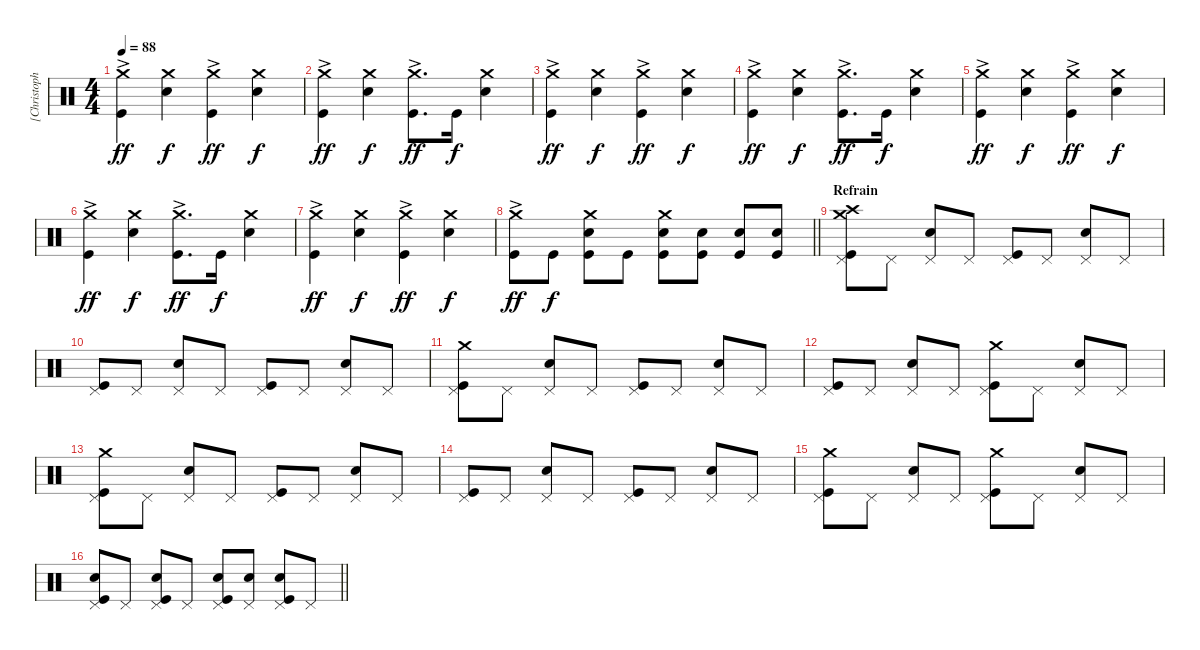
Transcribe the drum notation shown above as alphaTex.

\track ("[Christoph Schneider]  Drums" "[Christoph") {instrument percussion}
\staff {score}
\articulation defaults
\ts (4 4)
\tempo 88
\clef neutral
\ks c
("Crash medium (hit)" "Kick (hit)"{ac}).4{dy ff} ("Electric Snare (hit)" "Crash medium (hit)").4{dy f} ("Crash medium (hit)" "Kick (hit)"{ac}).4{dy ff} ("Electric Snare (hit)" "Crash medium (hit)").4{dy f} |
("Crash medium (hit)" "Kick (hit)"{ac}).4{dy ff} ("Electric Snare (hit)" "Crash medium (hit)").4{dy f} ("Crash medium (hit)" "Kick (hit)"{ac}).8{d dy ff} "Kick (hit)".16{dy f} ("Electric Snare (hit)" "Crash medium (hit)").4 |
("Crash medium (hit)" "Kick (hit)"{ac}).4{dy ff} ("Electric Snare (hit)" "Crash medium (hit)").4{dy f} ("Crash medium (hit)" "Kick (hit)"{ac}).4{dy ff} ("Electric Snare (hit)" "Crash medium (hit)").4{dy f} |
("Crash medium (hit)" "Kick (hit)"{ac}).4{dy ff} ("Electric Snare (hit)" "Crash medium (hit)").4{dy f} ("Crash medium (hit)" "Kick (hit)"{ac}).8{d dy ff} "Kick (hit)".16{dy f} ("Electric Snare (hit)" "Crash medium (hit)").4 |
("Crash medium (hit)" "Kick (hit)"{ac}).4{dy ff} ("Electric Snare (hit)" "Crash medium (hit)").4{dy f} ("Crash medium (hit)" "Kick (hit)"{ac}).4{dy ff} ("Electric Snare (hit)" "Crash medium (hit)").4{dy f} |
("Crash medium (hit)" "Kick (hit)"{ac}).4{dy ff} ("Electric Snare (hit)" "Crash medium (hit)").4{dy f} ("Crash medium (hit)" "Kick (hit)"{ac}).8{d dy ff} "Kick (hit)".16{dy f} ("Electric Snare (hit)" "Crash medium (hit)").4 |
("Crash medium (hit)" "Kick (hit)"{ac}).4{dy ff} ("Electric Snare (hit)" "Crash medium (hit)").4{dy f} ("Crash medium (hit)" "Kick (hit)"{ac}).4{dy ff} ("Electric Snare (hit)" "Crash medium (hit)").4{dy f} |
\barLineRight lightlight
("Crash medium (hit)" "Kick (hit)"{ac}).8{dy ff} "Kick (hit)".8{dy f} ("Kick (hit)" "Electric Snare (hit)" "Crash medium (hit)").8 "Kick (hit)".8 ("Electric Snare (hit)" "Crash medium (hit)" "Kick (hit)").8 ("Kick (hit)" "Electric Snare (hit)").8 ("Electric Snare (hit)" "Kick (hit)").8 ("Kick (hit)" "Electric Snare (hit)").8 |
\section ("" "Refrain")
("Crash medium (hit)" "Pedal Hi-Hat (hit)" "Crash high (hit)" "Kick (hit)").8 "Pedal Hi-Hat (hit)".8 ("Pedal Hi-Hat (hit)" "Electric Snare (hit)").8 "Pedal Hi-Hat (hit)".8 ("Pedal Hi-Hat (hit)" "Kick (hit)").8 "Pedal Hi-Hat (hit)".8 ("Pedal Hi-Hat (hit)" "Electric Snare (hit)").8 "Pedal Hi-Hat (hit)".8 |
("Pedal Hi-Hat (hit)" "Kick (hit)").8 "Pedal Hi-Hat (hit)".8 ("Pedal Hi-Hat (hit)" "Electric Snare (hit)").8 "Pedal Hi-Hat (hit)".8 ("Pedal Hi-Hat (hit)" "Kick (hit)").8 "Pedal Hi-Hat (hit)".8 ("Pedal Hi-Hat (hit)" "Electric Snare (hit)").8 "Pedal Hi-Hat (hit)".8 |
("Crash medium (hit)" "Pedal Hi-Hat (hit)" "Kick (hit)").8 "Pedal Hi-Hat (hit)".8 ("Pedal Hi-Hat (hit)" "Electric Snare (hit)").8 "Pedal Hi-Hat (hit)".8 ("Pedal Hi-Hat (hit)" "Kick (hit)").8 "Pedal Hi-Hat (hit)".8 ("Pedal Hi-Hat (hit)" "Electric Snare (hit)").8 "Pedal Hi-Hat (hit)".8 |
("Pedal Hi-Hat (hit)" "Kick (hit)").8 "Pedal Hi-Hat (hit)".8 ("Pedal Hi-Hat (hit)" "Electric Snare (hit)").8 "Pedal Hi-Hat (hit)".8 ("Pedal Hi-Hat (hit)" "Crash medium (hit)" "Kick (hit)").8 "Pedal Hi-Hat (hit)".8 ("Pedal Hi-Hat (hit)" "Electric Snare (hit)").8 "Pedal Hi-Hat (hit)".8 |
("Crash medium (hit)" "Pedal Hi-Hat (hit)" "Kick (hit)").8 "Pedal Hi-Hat (hit)".8 ("Pedal Hi-Hat (hit)" "Electric Snare (hit)").8 "Pedal Hi-Hat (hit)".8 ("Pedal Hi-Hat (hit)" "Kick (hit)").8 "Pedal Hi-Hat (hit)".8 ("Pedal Hi-Hat (hit)" "Electric Snare (hit)").8 "Pedal Hi-Hat (hit)".8 |
("Pedal Hi-Hat (hit)" "Kick (hit)").8 "Pedal Hi-Hat (hit)".8 ("Pedal Hi-Hat (hit)" "Electric Snare (hit)").8 "Pedal Hi-Hat (hit)".8 ("Pedal Hi-Hat (hit)" "Kick (hit)").8 "Pedal Hi-Hat (hit)".8 ("Pedal Hi-Hat (hit)" "Electric Snare (hit)").8 "Pedal Hi-Hat (hit)".8 |
("Crash medium (hit)" "Pedal Hi-Hat (hit)" "Kick (hit)").8 "Pedal Hi-Hat (hit)".8 ("Pedal Hi-Hat (hit)" "Electric Snare (hit)").8 "Pedal Hi-Hat (hit)".8 ("Pedal Hi-Hat (hit)" "Crash medium (hit)" "Kick (hit)").8 "Pedal Hi-Hat (hit)".8 ("Pedal Hi-Hat (hit)" "Electric Snare (hit)").8 "Pedal Hi-Hat (hit)".8 |
\barLineRight lightlight
("Electric Snare (hit)" "Pedal Hi-Hat (hit)" "Kick (hit)").8 "Pedal Hi-Hat (hit)".8 ("Pedal Hi-Hat (hit)" "Kick (hit)" "Electric Snare (hit)").8 "Pedal Hi-Hat (hit)".8 ("Pedal Hi-Hat (hit)" "Electric Snare (hit)" "Kick (hit)").8 ("Electric Snare (hit)" "Pedal Hi-Hat (hit)").8 ("Pedal Hi-Hat (hit)" "Kick (hit)" "Electric Snare (hit)").8 "Pedal Hi-Hat (hit)".8
